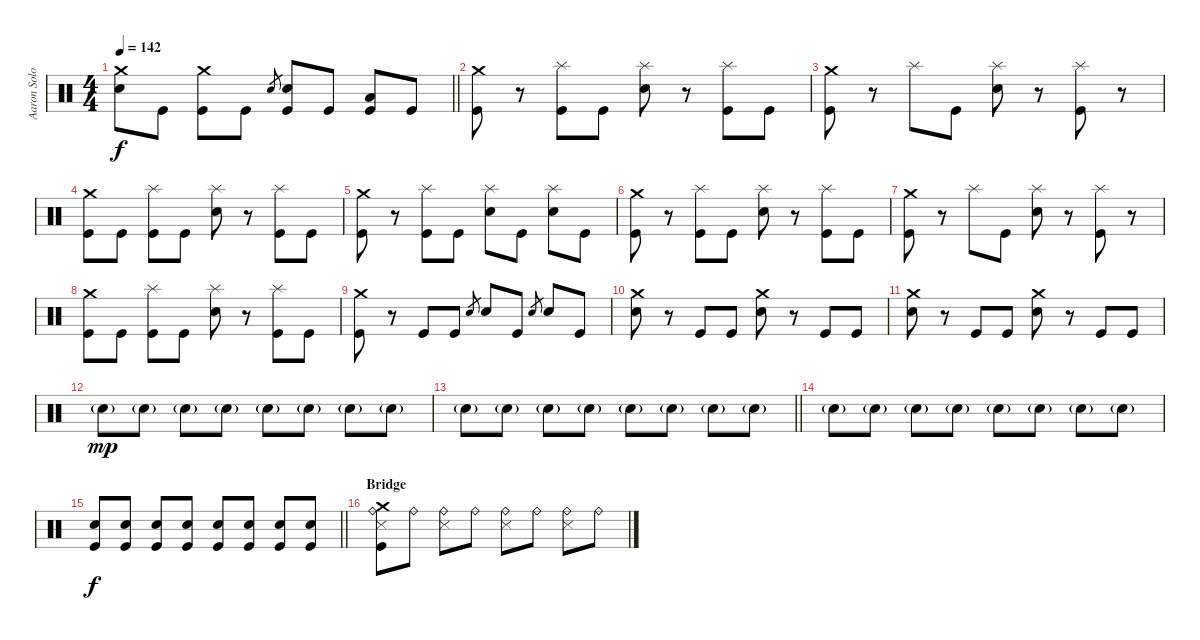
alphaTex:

\track ("Aaron Solowoniuk" "Aaron Solo") {instrument percussion}
\staff {score}
\articulation defaults
\ts (4 4)
\tempo 142
\clef neutral
\barLineRight lightlight
\ks c
("Crash medium (hit)" "Snare (hit)"{t}).8{dy f} "Kick (hit)".8 ("Crash medium (hit)" "Kick (hit)").8 "Kick (hit)".8 "Electric Snare (hit)".8{gr} ("Electric Snare (hit)" "Kick (hit)").8 "Kick (hit)".8 ("Low Floor Tom (hit)" "Kick (hit)").8 "Kick (hit)".8 |
\section ("" "")
("Crash medium (hit)" "Kick (hit)").8 r.8 ("Splash (hit)" "Kick (hit)").8 "Kick (hit)".8 ("Splash (hit)" "Electric Snare (hit)").8 r.8 ("Splash (hit)" "Kick (hit)").8 "Kick (hit)".8 |
("Crash medium (hit)" "Kick (hit)").8 r.8 "Splash (hit)".8 "Kick (hit)".8 ("Splash (hit)" "Electric Snare (hit)").8 r.8 ("Splash (hit)" "Kick (hit)").8 r.8 |
("Crash medium (hit)" "Kick (hit)").8 "Kick (hit)".8 ("Splash (hit)" "Kick (hit)").8 "Kick (hit)".8 ("Splash (hit)" "Electric Snare (hit)").8 r.8 ("Splash (hit)" "Kick (hit)").8 "Kick (hit)".8 |
("Crash medium (hit)" "Kick (hit)").8 r.8 ("Splash (hit)" "Kick (hit)").8 "Kick (hit)".8 ("Splash (hit)" "Electric Snare (hit)").8 "Kick (hit)".8 ("Splash (hit)" "Electric Snare (hit)").8 "Kick (hit)".8 |
("Crash medium (hit)" "Kick (hit)").8 r.8 ("Splash (hit)" "Kick (hit)").8 "Kick (hit)".8 ("Splash (hit)" "Electric Snare (hit)").8 r.8 ("Splash (hit)" "Kick (hit)").8 "Kick (hit)".8 |
("Crash medium (hit)" "Kick (hit)").8 r.8 "Splash (hit)".8 "Kick (hit)".8 ("Splash (hit)" "Electric Snare (hit)").8 r.8 ("Splash (hit)" "Kick (hit)").8 r.8 |
("Crash medium (hit)" "Kick (hit)").8 "Kick (hit)".8 ("Splash (hit)" "Kick (hit)").8 "Kick (hit)".8 ("Splash (hit)" "Electric Snare (hit)").8 r.8 ("Splash (hit)" "Kick (hit)").8 "Kick (hit)".8 |
("Crash medium (hit)" "Kick (hit)").8 r.8 "Kick (hit)".8 "Kick (hit)".8 "Electric Snare (hit)".8{gr} "Electric Snare (hit)".8 "Kick (hit)".8 "Electric Snare (hit)".8{gr} "Electric Snare (hit)".8 "Kick (hit)".8 |
("Crash medium (hit)" "Electric Snare (hit)").8 r.8 "Kick (hit)".8 "Kick (hit)".8 ("Crash medium (hit)" "Electric Snare (hit)").8 r.8 "Kick (hit)".8 "Kick (hit)".8 |
("Crash medium (hit)" "Electric Snare (hit)").8 r.8 "Kick (hit)".8 "Kick (hit)".8 ("Crash medium (hit)" "Electric Snare (hit)").8 r.8 "Kick (hit)".8 "Kick (hit)".8 |
"Electric Snare (hit)"{g}.8{dy mp} "Electric Snare (hit)"{g}.8 "Electric Snare (hit)"{g}.8 "Electric Snare (hit)"{g}.8 "Electric Snare (hit)"{g}.8 "Electric Snare (hit)"{g}.8 "Electric Snare (hit)"{g}.8 "Electric Snare (hit)"{g}.8 |
\barLineRight lightlight "Electric Snare (hit)"{g}.8 "Electric Snare (hit)"{g}.8 "Electric Snare (hit)"{g}.8 "Electric Snare (hit)"{g}.8 "Electric Snare (hit)"{g}.8 "Electric Snare (hit)"{g}.8 "Electric Snare (hit)"{g}.8 "Electric Snare (hit)"{g}.8
|
"Electric Snare (hit)"{g}.8 "Electric Snare (hit)"{g}.8 "Electric Snare (hit)"{g}.8 "Electric Snare (hit)"{g}.8 "Electric Snare (hit)"{g}.8 "Electric Snare (hit)"{g}.8 "Electric Snare (hit)"{g}.8 "Electric Snare (hit)"{g}.8 |
\barLineRight lightlight
("Kick (hit)" "Electric Snare (hit)").8{dy f} ("Kick (hit)" "Electric Snare (hit)").8 ("Kick (hit)" "Electric Snare (hit)").8 ("Kick (hit)" "Electric Snare (hit)").8 ("Kick (hit)" "Electric Snare (hit)").8 ("Kick (hit)" "Electric Snare (hit)").8 ("Kick (hit)" "Electric Snare (hit)").8 ("Kick (hit)" "Electric Snare (hit)").8 |
\section ("" "Bridge")
("Ride (bell)" "Snare (side stick) 3" "Crash medium (hit)" "Kick (hit)").8 "Ride (bell)".8 ("Ride (bell)" "Snare (side stick) 3").8 "Ride (bell)".8 ("Ride (bell)" "Snare (side stick) 3").8 "Ride (bell)".8 ("Ride (bell)" "Snare (side stick) 3").8 "Ride (bell)".8
